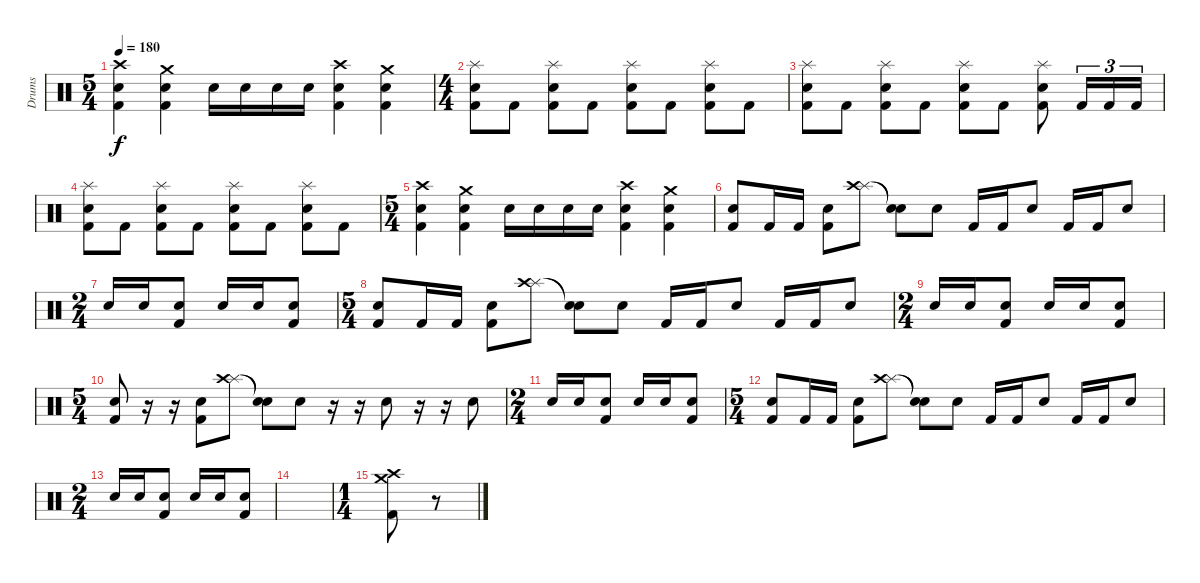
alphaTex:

\track ("Drums" "Drums") {instrument percussion}
\staff {score}
\articulation defaults
\ts (5 4)
\tempo 180
\clef neutral
\ks c
("Crash high (hit)" "Snare (hit) 2" "Kick (hit) 2").4{dy f} ("Crash medium (hit)" "Snare (hit) 2" "Kick (hit) 2").4 "Snare (hit) 2".16 "Snare (hit) 2".16 "Snare (hit) 2".16 "Snare (hit) 2".16 ("Crash high (hit)" "Snare (hit) 2" "Kick (hit) 2").4 ("Crash medium (hit)" "Snare (hit) 2" "Kick (hit) 2").4 |
\ts (4 4)
("Splash (hit)" "Snare (hit) 2" "Kick (hit) 2").8 "Kick (hit) 2".8 ("Splash (hit)" "Snare (hit) 2" "Kick (hit) 2").8 "Kick (hit) 2".8 ("Splash (hit)" "Snare (hit) 2" "Kick (hit) 2").8 "Kick (hit) 2".8 ("Splash (hit)" "Snare (hit) 2" "Kick (hit) 2").8 "Kick (hit) 2".8 |
("Splash (hit)" "Snare (hit) 2" "Kick (hit) 2").8 "Kick (hit) 2".8 ("Splash (hit)" "Snare (hit) 2" "Kick (hit) 2").8 "Kick (hit) 2".8 ("Splash (hit)" "Snare (hit) 2" "Kick (hit) 2").8 "Kick (hit) 2".8 ("Splash (hit)" "Snare (hit) 2" "Kick (hit) 2").8 "Kick (hit) 2".16{tu (3 2)} "Kick (hit) 2".16{tu (3 2)} "Kick (hit) 2".16{tu (3 2)} |
("Splash (hit)" "Snare (hit) 2" "Kick (hit) 2").8 "Kick (hit) 2".8 ("Splash (hit)" "Snare (hit) 2" "Kick (hit) 2").8 "Kick (hit) 2".8 ("Splash (hit)" "Snare (hit) 2" "Kick (hit) 2").8 "Kick (hit) 2".8 ("Splash (hit)" "Snare (hit) 2" "Kick (hit) 2").8 "Kick (hit) 2".8 |
\ts (5 4)
("Crash high (hit)" "Snare (hit) 2" "Kick (hit) 2").4 ("Crash medium (hit)" "Snare (hit) 2" "Kick (hit) 2").4 "Snare (hit) 2".16 "Snare (hit) 2".16 "Snare (hit) 2".16 "Snare (hit) 2".16 ("Crash high (hit)" "Snare (hit) 2" "Kick (hit) 2").4 ("Crash medium (hit)" "Snare (hit) 2" "Kick (hit) 2").4 |
("Snare (hit) 2" "Kick (hit) 2").8 "Kick (hit) 2".16 "Kick (hit) 2".16 ("Snare (hit) 2" "Kick (hit) 2").8 ("Splash (hit)" "Crash high (hit)").8 ("Snare (hit)"{t} "Snare (hit)"{t}).8 "Snare (hit) 2".8 "Kick (hit) 2".16 "Kick (hit) 2".16 "Snare (hit) 2".8 "Kick (hit) 2".16 "Kick (hit) 2".16 "Snare (hit) 2".8 |
\ts (2 4)
"Snare (hit) 2".16 "Snare (hit) 2".16 ("Snare (hit) 2" "Kick (hit) 2").8 "Snare (hit) 2".16 "Snare (hit) 2".16 ("Snare (hit) 2" "Kick (hit) 2").8 |
\ts (5 4)
("Snare (hit) 2" "Kick (hit) 2").8 "Kick (hit) 2".16 "Kick (hit) 2".16 ("Snare (hit) 2" "Kick (hit) 2").8 ("Splash (hit)" "Crash high (hit)").8 ("Snare (hit)"{t} "Snare (hit)"{t}).8 "Snare (hit) 2".8 "Kick (hit) 2".16 "Kick (hit) 2".16 "Snare (hit) 2".8 "Kick (hit) 2".16 "Kick (hit) 2".16 "Snare (hit) 2".8 |
\ts (2 4)
"Snare (hit) 2".16 "Snare (hit) 2".16 ("Snare (hit) 2" "Kick (hit) 2").8 "Snare (hit) 2".16 "Snare (hit) 2".16 ("Snare (hit) 2" "Kick (hit) 2").8 |
\ts (5 4)
("Snare (hit) 2" "Kick (hit) 2").8 r.16 r.16 ("Snare (hit) 2" "Kick (hit) 2").8 ("Splash (hit)" "Crash high (hit)").8 ("Snare (hit)"{t} "Snare (hit)"{t}).8 "Snare (hit) 2".8 r.16 r.16 "Snare (hit) 2".8 r.16 r.16 "Snare (hit) 2".8 |
\ts (2 4)
"Snare (hit) 2".16 "Snare (hit) 2".16 ("Snare (hit) 2" "Kick (hit) 2").8 "Snare (hit) 2".16 "Snare (hit) 2".16 ("Snare (hit) 2" "Kick (hit) 2").8 |
\ts (5 4)
("Snare (hit) 2" "Kick (hit) 2").8 "Kick (hit) 2".16 "Kick (hit) 2".16 ("Snare (hit) 2" "Kick (hit) 2").8 ("Splash (hit)" "Crash high (hit)").8 ("Snare (hit)"{t} "Snare (hit)"{t}).8 "Snare (hit) 2".8 "Kick (hit) 2".16 "Kick (hit) 2".16 "Snare (hit) 2".8 "Kick (hit) 2".16 "Kick (hit) 2".16 "Snare (hit) 2".8 |
\ts (2 4)
"Snare (hit) 2".16 "Snare (hit) 2".16 ("Snare (hit) 2" "Kick (hit) 2").8 "Snare (hit) 2".16 "Snare (hit) 2".16 ("Snare (hit) 2" "Kick (hit) 2").8 |
|
\ts (1 4)
("Crash medium (hit)" "Crash high (hit)" "Kick (hit) 2").8 r.8
